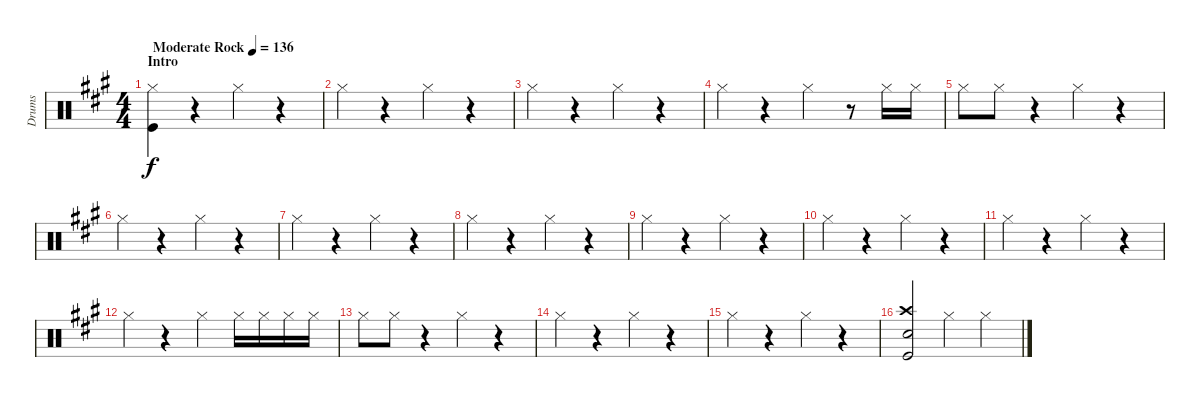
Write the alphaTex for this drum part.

\track ("Drums" "Drums") {instrument percussion}
\staff {score}
\articulation defaults
\ts (4 4)
\section ("" "Intro")
\tempo (136 "Moderate Rock")
\clef neutral
\ks a
("Hi-Hat (closed)" "Kick (hit)").4{dy f} r.4 "Hi-Hat (closed)".4 r.4 |
"Hi-Hat (closed)".4 r.4 "Hi-Hat (closed)".4 r.4 |
"Hi-Hat (closed)".4 r.4 "Hi-Hat (closed)".4 r.4 |
"Hi-Hat (closed)".4 r.4 "Hi-Hat (closed)".4 r.8 "Hi-Hat (closed)".16 "Hi-Hat (closed)".16 |
"Hi-Hat (closed)".8 "Hi-Hat (closed)".8 r.4 "Hi-Hat (closed)".4 r.4 |
"Hi-Hat (closed)".4 r.4 "Hi-Hat (closed)".4 r.4 |
"Hi-Hat (closed)".4 r.4 "Hi-Hat (closed)".4 r.4 |
"Hi-Hat (closed)".4 r.4 "Hi-Hat (closed)".4 r.4 |
"Hi-Hat (closed)".4 r.4 "Hi-Hat (closed)".4 r.4 |
"Hi-Hat (closed)".4 r.4 "Hi-Hat (closed)".4 r.4 |
"Hi-Hat (closed)".4 r.4 "Hi-Hat (closed)".4 r.4 |
"Hi-Hat (closed)".4 r.4 "Hi-Hat (closed)".4 "Hi-Hat (closed)".16 "Hi-Hat (closed)".16 "Hi-Hat (closed)".16 "Hi-Hat (closed)".16 |
"Hi-Hat (closed)".8 "Hi-Hat (closed)".8 r.4 "Hi-Hat (closed)".4 r.4 |
"Hi-Hat (closed)".4 r.4 "Hi-Hat (closed)".4 r.4 |
"Hi-Hat (closed)".4 r.4 "Hi-Hat (closed)".4 r.4 |
("Crash high (hit)" "Snare (hit) 2" "Kick (hit)").2 "Hi-Hat (closed)".4 "Hi-Hat (closed)".4
